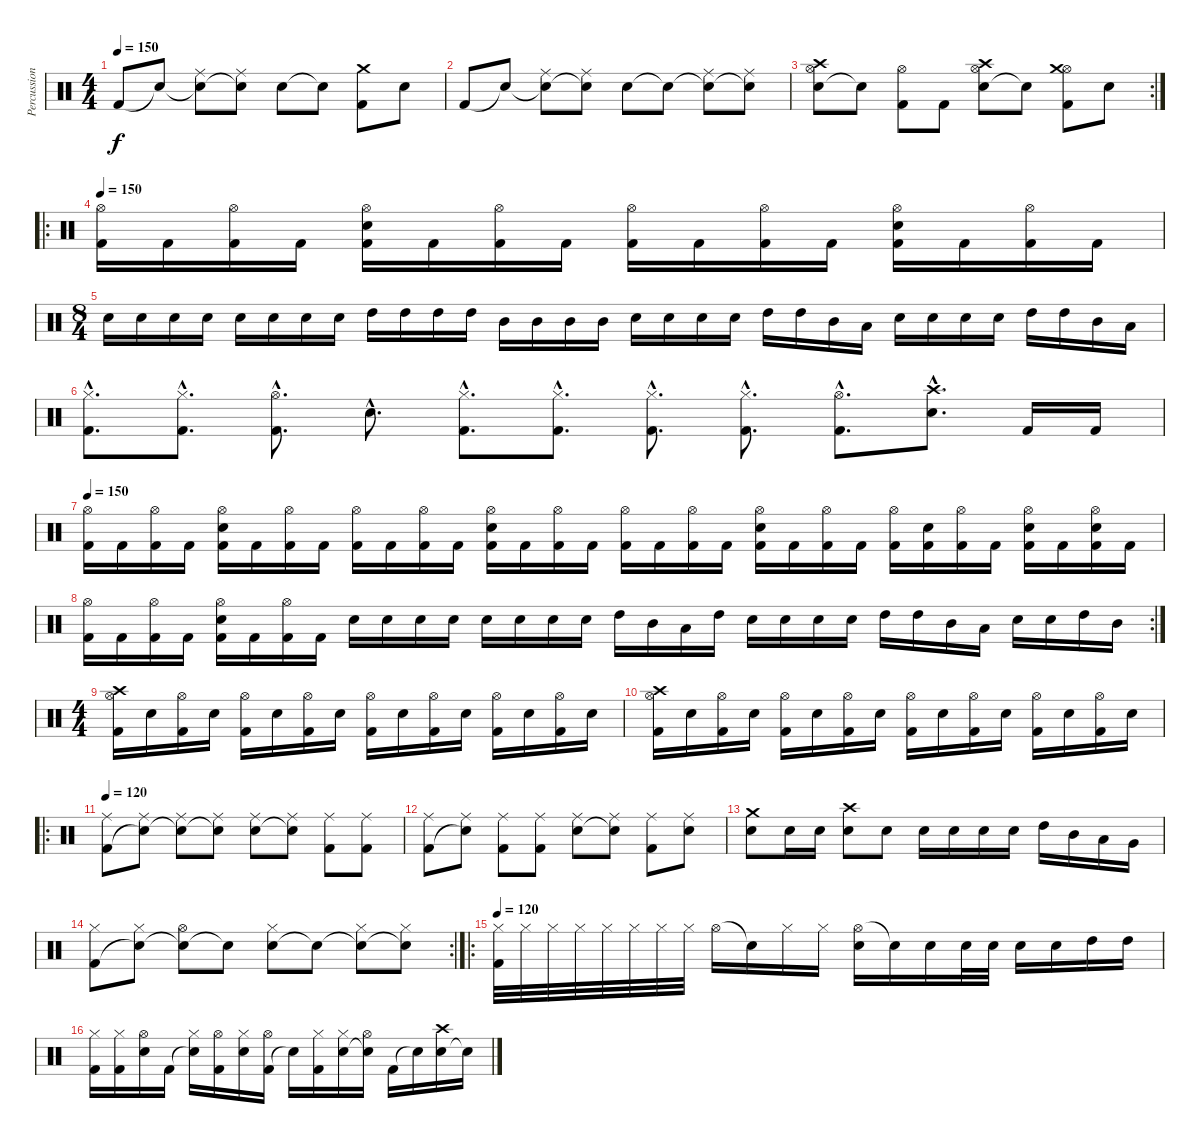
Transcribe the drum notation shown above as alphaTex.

\track ("Percussion" "Percussion") {instrument percussion}
\staff {score}
\articulation defaults
\ts (4 4)
\tempo 150
\clef neutral
\ks c "Kick (hit) 2".8{dy f} "Snare (hit)"{t}.8
("Snare (hit)"{t} "Ride (middle)").8 ("Snare (hit)"{t} "Ride (middle)").8 "Electric Snare (hit)".8 "Snare (hit)"{t}.8 ("Kick (hit) 2" "Crash medium (hit)").8 "Electric Snare (hit)".8 |
"Kick (hit) 2".8 "Snare (hit)"{t}.8 ("Snare (hit)"{t} "Ride (middle)").8 ("Snare (hit)"{t} "Ride (middle)").8 "Electric Snare (hit)".8 "Snare (hit)"{t}.8 ("Snare (hit)"{t} "Ride (middle)").8 ("Snare (hit)"{t} "Ride (middle)").8 |
\rc 2
("Electric Snare (hit)" "Hi-Hat (open)" "Crash high (hit)").8 "Snare (hit)"{t}.8 ("Kick (hit) 2" "Hi-Hat (open)").8 "Kick (hit) 2".8 ("Electric Snare (hit)" "Hi-Hat (open)" "Crash high (hit)").8 "Snare (hit)"{t}.8 ("Kick (hit) 2" "Hi-Hat (open)" "Crash medium (hit)").8 "Electric Snare (hit)".8 |
\ro
\tempo 150
("Hi-Hat (open)" "Kick (hit) 2").16 "Kick (hit) 2".16 ("Hi-Hat (open)" "Kick (hit) 2").16 "Kick (hit) 2".16 ("Electric Snare (hit)" "Hi-Hat (open)" "Kick (hit) 2").16 "Kick (hit) 2".16 ("Hi-Hat (open)" "Kick (hit) 2").16 "Kick (hit) 2".16 ("Hi-Hat (open)" "Kick (hit) 2").16 "Kick (hit) 2".16 ("Hi-Hat (open)" "Kick (hit) 2").16 "Kick (hit) 2".16 ("Electric Snare (hit)" "Hi-Hat (open)" "Kick (hit) 2").16 "Kick (hit) 2".16 ("Hi-Hat (open)" "Kick (hit) 2").16 "Kick (hit) 2".16 |
\ts (8 4)
"Electric Snare (hit)".16 "Electric Snare (hit)".16 "Electric Snare (hit)".16 "Electric Snare (hit)".16 "Electric Snare (hit)".16 "Electric Snare (hit)".16 "Electric Snare (hit)".16 "Electric Snare (hit)".16 "High Tom (hit)".16 "High Tom (hit)".16 "High Tom (hit)".16 "High Tom (hit)".16 "Mid Tom (hit)".16 "Mid Tom (hit)".16 "Mid Tom (hit)".16 "Mid Tom (hit)".16 "Electric Snare (hit)".16 "Electric Snare (hit)".16 "Electric Snare (hit)".16 "Electric Snare (hit)".16 "High Tom (hit)".16 "High Tom (hit)".16 "Mid Tom (hit)".16 "Low Tom (hit)".16 "Electric Snare (hit)".16 "Electric Snare (hit)".16 "Electric Snare (hit)".16 "Electric Snare (hit)".16 "High Tom (hit)".16 "High Tom (hit)".16 "Mid Tom (hit)".16 "Low Tom (hit)".16 |
("Kick (hit) 2"{hac} "Hi-Hat (closed)"{hac}).8{d} ("Kick (hit) 2"{hac} "Hi-Hat (closed)"{hac}).8{d} ("Kick (hit) 2"{hac} "Hi-Hat (open)"{hac}).8{d} "Electric Snare (hit)"{hac}.8{d} ("Kick (hit) 2"{hac} "Hi-Hat (closed)"{hac}).8{d} ("Kick (hit) 2"{hac} "Hi-Hat (closed)"{hac}).8{d} ("Kick (hit) 2"{hac} "Hi-Hat (closed)"{hac}).8{d} ("Kick (hit) 2"{hac} "Hi-Hat (closed)"{hac}).8{d} ("Kick (hit) 2"{hac} "Hi-Hat (open)"{hac}).8{d} ("Electric Snare (hit)"{hac} "Crash high (hit)"{hac}).8{d} "Kick (hit) 2".16 "Kick (hit) 2".16 |
\tempo 150
("Hi-Hat (open)" "Kick (hit) 2").16 "Kick (hit) 2".16 ("Hi-Hat (open)" "Kick (hit) 2").16 "Kick (hit) 2".16 ("Electric Snare (hit)" "Hi-Hat (open)" "Kick (hit) 2").16 "Kick (hit) 2".16 ("Hi-Hat (open)" "Kick (hit) 2").16 "Kick (hit) 2".16 ("Hi-Hat (open)" "Kick (hit) 2").16 "Kick (hit) 2".16 ("Hi-Hat (open)" "Kick (hit) 2").16 "Kick (hit) 2".16 ("Electric Snare (hit)" "Hi-Hat (open)" "Kick (hit) 2").16 "Kick (hit) 2".16 ("Hi-Hat (open)" "Kick (hit) 2").16 "Kick (hit) 2".16 ("Hi-Hat (open)" "Kick (hit) 2").16 "Kick (hit) 2".16 ("Hi-Hat (open)" "Kick (hit) 2").16 "Kick (hit) 2".16 ("Electric Snare (hit)" "Hi-Hat (open)" "Kick (hit) 2").16 "Kick (hit) 2".16 ("Hi-Hat (open)" "Kick (hit) 2").16 "Kick (hit) 2".16 ("Hi-Hat (open)" "Kick (hit) 2").16 ("Electric Snare (hit)" "Kick (hit) 2").16 ("Hi-Hat (open)" "Kick (hit) 2").16 "Kick (hit) 2".16 ("Electric Snare (hit)" "Hi-Hat (open)" "Kick (hit) 2").16 "Kick (hit) 2".16 ("Electric Snare (hit)" "Hi-Hat (open)" "Kick (hit) 2").16 "Kick (hit) 2".16 |
\rc 2
("Hi-Hat (open)" "Kick (hit) 2").16 "Kick (hit) 2".16 ("Hi-Hat (open)" "Kick (hit) 2").16 "Kick (hit) 2".16 ("Electric Snare (hit)" "Hi-Hat (open)" "Kick (hit) 2").16 "Kick (hit) 2".16 ("Hi-Hat (open)" "Kick (hit) 2").16 "Kick (hit) 2".16 "Electric Snare (hit)".16 "Electric Snare (hit)".16 "Electric Snare (hit)".16 "Electric Snare (hit)".16 "Electric Snare (hit)".16 "Electric Snare (hit)".16 "Electric Snare (hit)".16 "Electric Snare (hit)".16 "High Tom (hit)".16 "Mid Tom (hit)".16 "Low Tom (hit)".16 "High Tom (hit)".16 "Electric Snare (hit)".16 "Electric Snare (hit)".16 "Electric Snare (hit)".16 "Electric Snare (hit)".16 "High Tom (hit)".16 "High Tom (hit)".16 "Mid Tom (hit)".16 "Low Tom (hit)".16 "Electric Snare (hit)".16 "Electric Snare (hit)".16 "High Tom (hit)".16 "Mid Tom (hit)".16 |
\ts (4 4)
("Kick (hit) 2" "Hi-Hat (open)" "Crash high (hit)").16 "Electric Snare (hit)".16 ("Kick (hit) 2" "Hi-Hat (open)").16 "Electric Snare (hit)".16 ("Kick (hit) 2" "Hi-Hat (open)").16 "Electric Snare (hit)".16 ("Kick (hit) 2" "Hi-Hat (open)").16 "Electric Snare (hit)".16 ("Kick (hit) 2" "Hi-Hat (open)").16 "Electric Snare (hit)".16 ("Kick (hit) 2" "Hi-Hat (open)").16 "Electric Snare (hit)".16 ("Kick (hit) 2" "Hi-Hat (open)").16 "Electric Snare (hit)".16 ("Kick (hit) 2" "Hi-Hat (open)").16 "Electric Snare (hit)".16 |
("Kick (hit) 2" "Hi-Hat (open)" "Crash high (hit)").16 "Electric Snare (hit)".16 ("Kick (hit) 2" "Hi-Hat (open)").16 "Electric Snare (hit)".16 ("Kick (hit) 2" "Hi-Hat (open)").16 "Electric Snare (hit)".16 ("Kick (hit) 2" "Hi-Hat (open)").16 "Electric Snare (hit)".16 ("Kick (hit) 2" "Hi-Hat (open)").16 "Electric Snare (hit)".16 ("Kick (hit) 2" "Hi-Hat (open)").16 "Electric Snare (hit)".16 ("Kick (hit) 2" "Hi-Hat (open)").16 "Electric Snare (hit)".16 ("Kick (hit) 2" "Hi-Hat (open)").16 "Electric Snare (hit)".16 |
\ro
\tempo 120
("Kick (hit) 2" "Ride (middle)").8 ("Snare (hit)"{t} "Ride (middle)").8 ("Snare (hit)"{t} "Ride (middle)").8 ("Snare (hit)"{t} "Ride (middle)").8 ("Electric Snare (hit)" "Ride (middle)").8 ("Snare (hit)"{t} "Ride (middle)").8 ("Kick (hit) 2" "Ride (middle)").8 ("Kick (hit) 2" "Ride (middle)").8 |
("Kick (hit) 2" "Ride (middle)").8 ("Snare (hit)"{t} "Ride (middle)").8 ("Kick (hit) 2" "Ride (middle)").8 ("Kick (hit) 2" "Ride (middle)").8 ("Electric Snare (hit)" "Ride (middle)").8 ("Snare (hit)"{t} "Ride (middle)").8 ("Kick (hit) 2" "Ride (middle)").8 ("Electric Snare (hit)" "Ride (middle)").8 |
("Electric Snare (hit)" "Crash medium (hit)").8 "Electric Snare (hit)".16 "Electric Snare (hit)".16 ("Electric Snare (hit)" "Crash high (hit)").8 "Electric Snare (hit)".8 "Electric Snare (hit)".16 "Electric Snare (hit)".16 "Electric Snare (hit)".16 "Electric Snare (hit)".16 "High Tom (hit)".16 "Mid Tom (hit)".16 "Low Tom (hit)".16 "Very Low Tom (hit)".16 |
\rc 2
("Kick (hit) 2" "Hi-Hat (closed)").8 ("Snare (hit)"{t} "Hi-Hat (closed)").8 ("Snare (hit)"{t} "Hi-Hat (open)").8 "Snare (hit)"{t}.8 ("Electric Snare (hit)" "Hi-Hat (closed)").8 "Snare (hit)"{t}.8 ("Snare (hit)"{t} "Hi-Hat (closed)").8 ("Snare (hit)"{t} "Hi-Hat (closed)").8 |
\ro
\tempo 120
("Hi-Hat (closed)" "Kick (hit) 2").32 "Hi-Hat (closed)".32 "Hi-Hat (closed)".32 "Hi-Hat (closed)".32 "Hi-Hat (closed)".32 "Hi-Hat (closed)".32 "Hi-Hat (closed)".32 "Hi-Hat (closed)".32 "Hi-Hat (open)".16 "Snare (hit)"{t}.16 "Hi-Hat (closed)".16 "Hi-Hat (closed)".16 ("Hi-Hat (open)" "Electric Snare (hit)").16 "Snare (hit)"{t}.16 "Electric Snare (hit)".16 "Electric Snare (hit)".32 "Electric Snare (hit)".32 "Electric Snare (hit)".16 "Electric Snare (hit)".16 "High Tom (hit)".16 "High Tom (hit)".16 |
("Kick (hit) 2" "Hi-Hat (closed)").16 ("Kick (hit) 2" "Hi-Hat (closed)").16 ("Electric Snare (hit)" "Hi-Hat (open)").16 "Kick (hit) 2".16 ("Snare (hit)"{t} "Hi-Hat (closed)").16 ("Kick (hit) 2" "Hi-Hat (open)").16 ("Electric Snare (hit)" "Hi-Hat (closed)").16 ("Kick (hit) 2" "Hi-Hat (open)").16 "Snare (hit)"{t}.16 ("Kick (hit) 2" "Hi-Hat (closed)").16 ("Electric Snare (hit)" "Hi-Hat (closed)").16 ("Snare (hit)"{t} "Hi-Hat (open)").16 "Kick (hit) 2".16 "Snare (hit)"{t}.16 ("Electric Snare (hit)" "Crash high (hit)").16 "Snare (hit)"{t}.16
